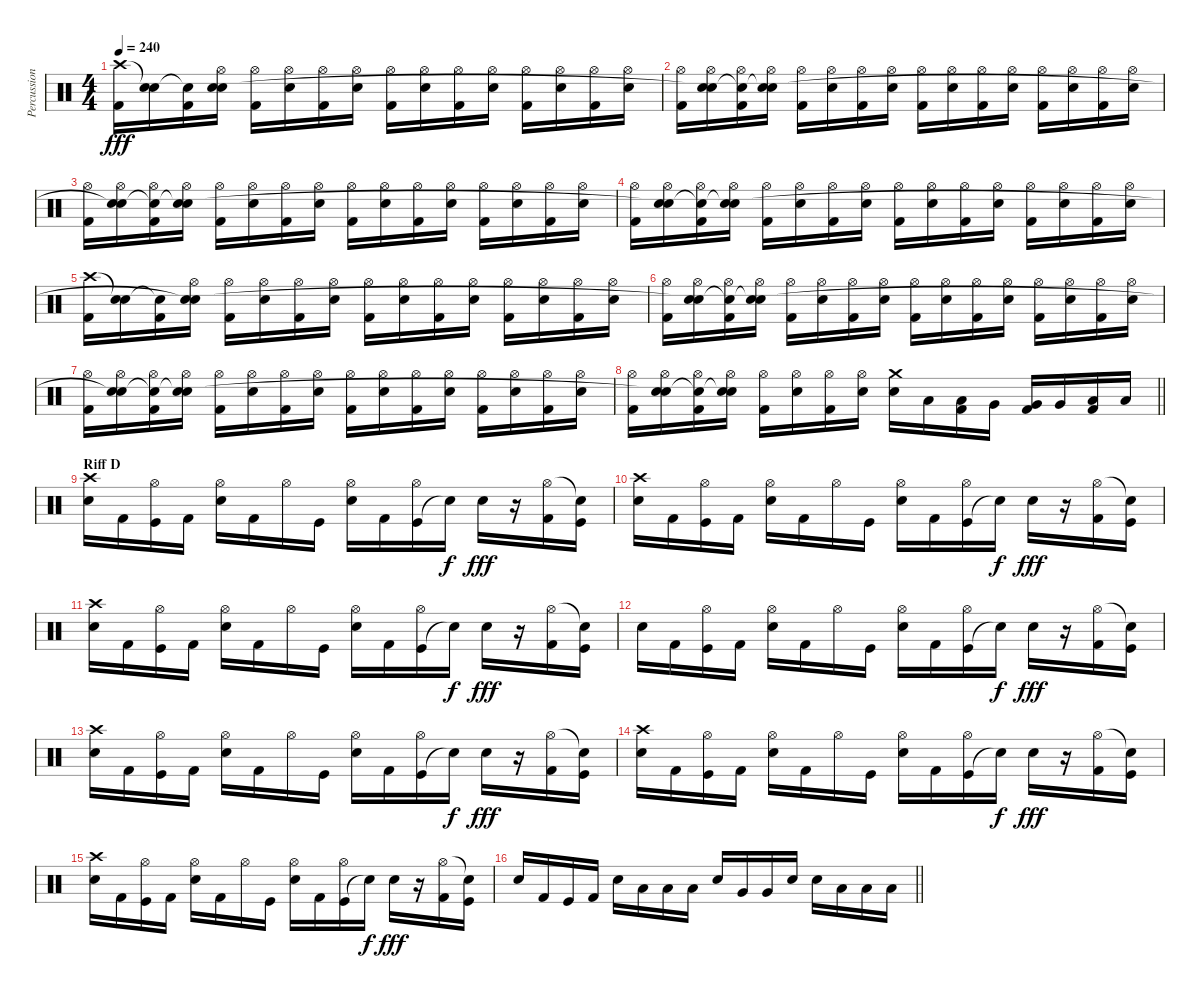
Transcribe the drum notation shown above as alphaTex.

\track ("Percussion" "Percussion") {instrument percussion}
\staff {score}
\articulation defaults
\ts (4 4)
\tempo 240
\clef neutral
\ks c
("Kick (hit) 2" "Crash high (hit)").16{dy fff} ("Snare (hit) 2" "Snare (hit)"{t}).16 ("Kick (hit) 2" "Snare (hit)"{t}).16 ("Snare (hit) 2" "Hi-Hat (open)" "Snare (hit)"{t}).16 ("Kick (hit) 2" "Hi-Hat (open)").16 ("Snare (hit) 2" "Hi-Hat (open)").16 ("Kick (hit) 2" "Hi-Hat (open)").16 ("Snare (hit) 2" "Hi-Hat (open)").16 ("Kick (hit) 2" "Hi-Hat (open)").16 ("Snare (hit) 2" "Hi-Hat (open)").16 ("Kick (hit) 2" "Hi-Hat (open)").16 ("Snare (hit) 2" "Hi-Hat (open)").16 ("Kick (hit) 2" "Hi-Hat (open)").16 ("Snare (hit) 2" "Hi-Hat (open)").16 ("Kick (hit) 2" "Hi-Hat (open)").16 ("Snare (hit) 2" "Hi-Hat (open)").16 |
("Kick (hit) 2" "Hi-Hat (open)").16 ("Snare (hit) 2" "Hi-Hat (open)" "Snare (hit)"{t}).16 ("Kick (hit) 2" "Hi-Hat (open)" "Snare (hit)"{t}).16 ("Snare (hit) 2" "Hi-Hat (open)" "Snare (hit)"{t}).16 ("Kick (hit) 2" "Hi-Hat (open)").16 ("Snare (hit) 2" "Hi-Hat (open)").16 ("Kick (hit) 2" "Hi-Hat (open)").16 ("Snare (hit) 2" "Hi-Hat (open)").16 ("Kick (hit) 2" "Hi-Hat (open)").16 ("Snare (hit) 2" "Hi-Hat (open)").16 ("Kick (hit) 2" "Hi-Hat (open)").16 ("Snare (hit) 2" "Hi-Hat (open)").16 ("Kick (hit) 2" "Hi-Hat (open)").16 ("Snare (hit) 2" "Hi-Hat (open)").16 ("Kick (hit) 2" "Hi-Hat (open)").16 ("Snare (hit) 2" "Hi-Hat (open)").16 |
("Kick (hit) 2" "Hi-Hat (open)").16 ("Snare (hit) 2" "Hi-Hat (open)" "Snare (hit)"{t}).16 ("Kick (hit) 2" "Hi-Hat (open)" "Snare (hit)"{t}).16 ("Snare (hit) 2" "Hi-Hat (open)" "Snare (hit)"{t}).16 ("Kick (hit) 2" "Hi-Hat (open)").16 ("Snare (hit) 2" "Hi-Hat (open)").16 ("Kick (hit) 2" "Hi-Hat (open)").16 ("Snare (hit) 2" "Hi-Hat (open)").16 ("Kick (hit) 2" "Hi-Hat (open)").16 ("Snare (hit) 2" "Hi-Hat (open)").16 ("Kick (hit) 2" "Hi-Hat (open)").16 ("Snare (hit) 2" "Hi-Hat (open)").16 ("Kick (hit) 2" "Hi-Hat (open)").16 ("Snare (hit) 2" "Hi-Hat (open)").16 ("Kick (hit) 2" "Hi-Hat (open)").16 ("Snare (hit) 2" "Hi-Hat (open)").16 |
("Kick (hit) 2" "Hi-Hat (open)").16 ("Snare (hit) 2" "Hi-Hat (open)" "Snare (hit)"{t}).16 ("Kick (hit) 2" "Hi-Hat (open)" "Snare (hit)"{t}).16 ("Snare (hit) 2" "Hi-Hat (open)" "Snare (hit)"{t}).16 ("Kick (hit) 2" "Hi-Hat (open)").16 ("Snare (hit) 2" "Hi-Hat (open)").16 ("Kick (hit) 2" "Hi-Hat (open)").16 ("Snare (hit) 2" "Hi-Hat (open)").16 ("Kick (hit) 2" "Hi-Hat (open)").16 ("Snare (hit) 2" "Hi-Hat (open)").16 ("Kick (hit) 2" "Hi-Hat (open)").16 ("Snare (hit) 2" "Hi-Hat (open)").16 ("Kick (hit) 2" "Hi-Hat (open)").16 ("Snare (hit) 2" "Hi-Hat (open)").16 ("Kick (hit) 2" "Hi-Hat (open)").16 ("Snare (hit) 2" "Hi-Hat (open)").16 |
("Kick (hit) 2" "Crash high (hit)").16 ("Snare (hit) 2" "Snare (hit)"{t}).16 ("Kick (hit) 2" "Snare (hit)"{t}).16 ("Snare (hit) 2" "Hi-Hat (open)" "Snare (hit)"{t}).16 ("Kick (hit) 2" "Hi-Hat (open)").16 ("Snare (hit) 2" "Hi-Hat (open)").16 ("Kick (hit) 2" "Hi-Hat (open)").16 ("Snare (hit) 2" "Hi-Hat (open)").16 ("Kick (hit) 2" "Hi-Hat (open)").16 ("Snare (hit) 2" "Hi-Hat (open)").16 ("Kick (hit) 2" "Hi-Hat (open)").16 ("Snare (hit) 2" "Hi-Hat (open)").16 ("Kick (hit) 2" "Hi-Hat (open)").16 ("Snare (hit) 2" "Hi-Hat (open)").16 ("Kick (hit) 2" "Hi-Hat (open)").16 ("Snare (hit) 2" "Hi-Hat (open)").16 |
("Kick (hit) 2" "Hi-Hat (open)").16 ("Snare (hit) 2" "Hi-Hat (open)" "Snare (hit)"{t}).16 ("Kick (hit) 2" "Hi-Hat (open)" "Snare (hit)"{t}).16 ("Snare (hit) 2" "Hi-Hat (open)" "Snare (hit)"{t}).16 ("Kick (hit) 2" "Hi-Hat (open)").16 ("Snare (hit) 2" "Hi-Hat (open)").16 ("Kick (hit) 2" "Hi-Hat (open)").16 ("Snare (hit) 2" "Hi-Hat (open)").16 ("Kick (hit) 2" "Hi-Hat (open)").16 ("Snare (hit) 2" "Hi-Hat (open)").16 ("Kick (hit) 2" "Hi-Hat (open)").16 ("Snare (hit) 2" "Hi-Hat (open)").16 ("Kick (hit) 2" "Hi-Hat (open)").16 ("Snare (hit) 2" "Hi-Hat (open)").16 ("Kick (hit) 2" "Hi-Hat (open)").16 ("Snare (hit) 2" "Hi-Hat (open)").16 |
("Kick (hit) 2" "Hi-Hat (open)").16 ("Snare (hit) 2" "Hi-Hat (open)" "Snare (hit)"{t}).16 ("Kick (hit) 2" "Hi-Hat (open)" "Snare (hit)"{t}).16 ("Snare (hit) 2" "Hi-Hat (open)" "Snare (hit)"{t}).16 ("Kick (hit) 2" "Hi-Hat (open)").16 ("Snare (hit) 2" "Hi-Hat (open)").16 ("Kick (hit) 2" "Hi-Hat (open)").16 ("Snare (hit) 2" "Hi-Hat (open)").16 ("Kick (hit) 2" "Hi-Hat (open)").16 ("Snare (hit) 2" "Hi-Hat (open)").16 ("Kick (hit) 2" "Hi-Hat (open)").16 ("Snare (hit) 2" "Hi-Hat (open)").16 ("Kick (hit) 2" "Hi-Hat (open)").16 ("Snare (hit) 2" "Hi-Hat (open)").16 ("Kick (hit) 2" "Hi-Hat (open)").16 ("Snare (hit) 2" "Hi-Hat (open)").16 |
\barLineRight lightlight
("Kick (hit) 2" "Hi-Hat (open)").16 ("Snare (hit) 2" "Hi-Hat (open)" "Snare (hit)"{t}).16 ("Kick (hit) 2" "Hi-Hat (open)" "Snare (hit)"{t}).16 ("Snare (hit) 2" "Hi-Hat (open)" "Snare (hit)"{t}).16 ("Kick (hit) 2" "Hi-Hat (open)").16 ("Snare (hit) 2" "Hi-Hat (open)").16 ("Kick (hit) 2" "Hi-Hat (open)").16 ("Snare (hit) 2" "Hi-Hat (open)").16 ("Snare (hit) 2" "Crash medium (hit)").16 "Low Tom (hit)".16 ("Kick (hit) 2" "Low Tom (hit)").16 "Very Low Tom (hit)".16 ("Kick (hit) 2" "Very Low Tom (hit)").16 "Very Low Tom (hit)".16 ("Kick (hit) 2" "Low Floor Tom (hit)").16 "Low Floor Tom (hit)".16 |
\section ("" "Riff D")
("Snare (hit) 2" "Crash high (hit)").16 "Kick (hit) 2".16 ("Kick (hit)" "Hi-Hat (open)").16 "Kick (hit) 2".16 ("Snare (hit) 2" "Hi-Hat (open)").16 "Kick (hit) 2".16 "Hi-Hat (open)".16 "Kick (hit)".16 ("Snare (hit) 2" "Hi-Hat (open)").16 "Kick (hit) 2".16 ("Kick (hit)" "Hi-Hat (open)").16 "Snare (hit)"{t}.16{dy f} "Snare (hit) 2".16{dy fff} r.16 ("Kick (hit) 2" "Hi-Hat (open)").16 ("Kick (hit)" "Snare (hit)"{t}).16 |
("Snare (hit) 2" "Crash high (hit)").16 "Kick (hit) 2".16 ("Kick (hit)" "Hi-Hat (open)").16 "Kick (hit) 2".16 ("Snare (hit) 2" "Hi-Hat (open)").16 "Kick (hit) 2".16 "Hi-Hat (open)".16 "Kick (hit)".16 ("Snare (hit) 2" "Hi-Hat (open)").16 "Kick (hit) 2".16 ("Kick (hit)" "Hi-Hat (open)").16 "Snare (hit)"{t}.16{dy f} "Snare (hit) 2".16{dy fff} r.16 ("Kick (hit) 2" "Hi-Hat (open)").16 ("Kick (hit)" "Snare (hit)"{t}).16 |
("Snare (hit) 2" "Crash high (hit)").16 "Kick (hit) 2".16 ("Kick (hit)" "Hi-Hat (open)").16 "Kick (hit) 2".16 ("Snare (hit) 2" "Hi-Hat (open)").16 "Kick (hit) 2".16 "Hi-Hat (open)".16 "Kick (hit)".16 ("Snare (hit) 2" "Hi-Hat (open)").16 "Kick (hit) 2".16 ("Kick (hit)" "Hi-Hat (open)").16 "Snare (hit)"{t}.16{dy f} "Snare (hit) 2".16{dy fff} r.16 ("Kick (hit) 2" "Hi-Hat (open)").16 ("Kick (hit)" "Snare (hit)"{t}).16 |
"Snare (hit) 2".16 "Kick (hit) 2".16 ("Kick (hit)" "Hi-Hat (open)").16 "Kick (hit) 2".16 ("Snare (hit) 2" "Hi-Hat (open)").16 "Kick (hit) 2".16 "Hi-Hat (open)".16 "Kick (hit)".16 ("Snare (hit) 2" "Hi-Hat (open)").16 "Kick (hit) 2".16 ("Kick (hit)" "Hi-Hat (open)").16 "Snare (hit)"{t}.16{dy f} "Snare (hit) 2".16{dy fff} r.16 ("Kick (hit) 2" "Hi-Hat (open)").16 ("Kick (hit)" "Snare (hit)"{t}).16 |
("Snare (hit) 2" "Crash high (hit)").16 "Kick (hit) 2".16 ("Kick (hit)" "Hi-Hat (open)").16 "Kick (hit) 2".16 ("Snare (hit) 2" "Hi-Hat (open)").16 "Kick (hit) 2".16 "Hi-Hat (open)".16 "Kick (hit)".16 ("Snare (hit) 2" "Hi-Hat (open)").16 "Kick (hit) 2".16 ("Kick (hit)" "Hi-Hat (open)").16 "Snare (hit)"{t}.16{dy f} "Snare (hit) 2".16{dy fff} r.16 ("Kick (hit) 2" "Hi-Hat (open)").16 ("Kick (hit)" "Snare (hit)"{t}).16 |
("Snare (hit) 2" "Crash high (hit)").16 "Kick (hit) 2".16 ("Kick (hit)" "Hi-Hat (open)").16 "Kick (hit) 2".16 ("Snare (hit) 2" "Hi-Hat (open)").16 "Kick (hit) 2".16 "Hi-Hat (open)".16 "Kick (hit)".16 ("Snare (hit) 2" "Hi-Hat (open)").16 "Kick (hit) 2".16 ("Kick (hit)" "Hi-Hat (open)").16 "Snare (hit)"{t}.16{dy f} "Snare (hit) 2".16{dy fff} r.16 ("Kick (hit) 2" "Hi-Hat (open)").16 ("Kick (hit)" "Snare (hit)"{t}).16 |
("Snare (hit) 2" "Crash high (hit)").16 "Kick (hit) 2".16 ("Kick (hit)" "Hi-Hat (open)").16 "Kick (hit) 2".16 ("Snare (hit) 2" "Hi-Hat (open)").16 "Kick (hit) 2".16 "Hi-Hat (open)".16 "Kick (hit)".16 ("Snare (hit) 2" "Hi-Hat (open)").16 "Kick (hit) 2".16 ("Kick (hit)" "Hi-Hat (open)").16 "Snare (hit)"{t}.16{dy f} "Snare (hit) 2".16{dy fff} r.16 ("Kick (hit) 2" "Hi-Hat (open)").16 ("Kick (hit)" "Snare (hit)"{t}).16 |
\barLineRight lightlight "Snare (hit) 2".16 "Kick (hit) 2".16 "Kick (hit)".16 "Kick (hit) 2".16 "Snare (hit) 2".16 "Low Floor Tom (hit)".16 "Low Floor Tom (hit)".16 "Low Floor Tom (hit)".16 "Snare (hit) 2".16 "Very Low Tom (hit)".16 "Very Low Tom (hit)".16 "Snare (hit) 2".16 "Snare (hit) 2".16 "Low Tom (hit)".16 "Low Tom (hit)".16 "Low Tom (hit)".16
